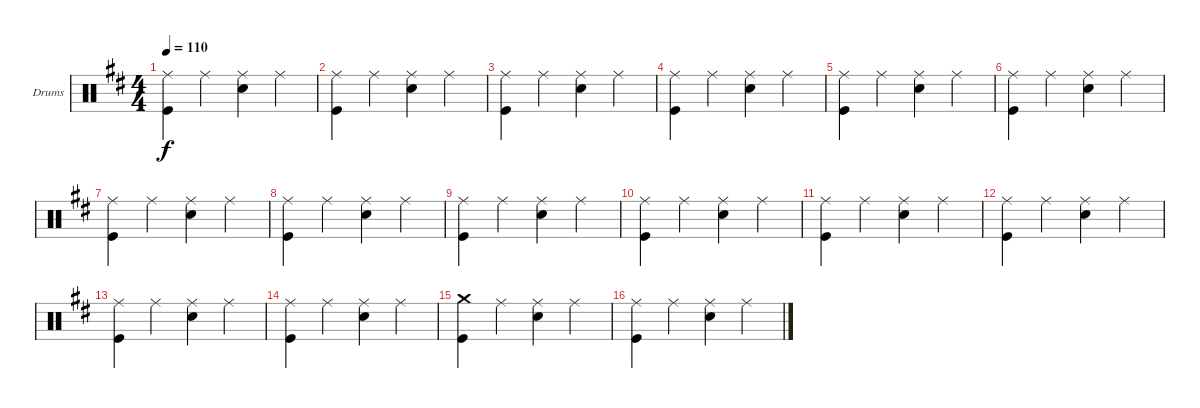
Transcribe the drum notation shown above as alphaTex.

\bracketExtendMode groupsimilarinstruments
\firstSystemTrackNameOrientation horizontal
\otherSystemsTrackNameOrientation horizontal
\track ("Drums" "Drums") {instrument percussion}
\staff {score}
\articulation defaults
\ts (4 4)
\scale
0.426768
\tempo 110
\accidentals auto
\clef neutral
\ottava regular
\simile none
\scale
0.317073
\ks d
("Ride (middle)" "Kick (hit)").4{dy f} "Ride (middle)".4 ("Ride (middle)" "Snare (hit) 2").4 "Ride (middle)".4 |
\scale
0.34596
\scale
0.292683 ("Ride (middle)" "Kick (hit)").4 "Ride (middle)".4 ("Ride (middle)" "Snare (hit) 2").4 "Ride (middle)".4 |
\scale
0.219136
\scale
0.252101 ("Ride (middle)" "Kick (hit)").4 "Ride (middle)".4 ("Ride (middle)" "Snare (hit) 2").4 "Ride (middle)".4 |
\scale
0.212963
\scale
0.273109 ("Ride (middle)" "Kick (hit)").4 "Ride (middle)".4 ("Ride (middle)" "Snare (hit) 2").4 "Ride (middle)".4 |
\scale
0.567901
\scale
0.47479 ("Ride (middle)" "Kick (hit)").4 "Ride (middle)".4 ("Ride (middle)" "Snare (hit) 2").4 "Ride (middle)".4 |
\scale
0.433657
\scale
0.351351 ("Ride (middle)" "Kick (hit)").4 "Ride (middle)".4 ("Ride (middle)" "Snare (hit) 2").4 "Ride (middle)".4 |
\scale
0.33657
\scale
0.324324 ("Ride (middle)" "Kick (hit)").4 "Ride (middle)".4 ("Ride (middle)" "Snare (hit) 2").4 "Ride (middle)".4 |
\scale
0.229773
\scale
0.324324 ("Ride (middle)" "Kick (hit)").4 "Ride (middle)".4 ("Ride (middle)" "Snare (hit) 2").4 "Ride (middle)".4 |
\scale
0.180157
\scale
0.26749 ("Ride (middle)" "Kick (hit)").4 "Ride (middle)".4 ("Ride (middle)" "Snare (hit) 2").4 "Ride (middle)".4 |
\scale
0.469974
\scale
0.465021 ("Ride (middle)" "Kick (hit)").4 "Ride (middle)".4 ("Ride (middle)" "Snare (hit) 2").4 "Ride (middle)".4 |
\scale
0.349869
\scale
0.26749 ("Ride (middle)" "Kick (hit)").4 "Ride (middle)".4 ("Ride (middle)" "Snare (hit) 2").4 "Ride (middle)".4 |
\scale
0.170673
\scale
0.324324 ("Ride (middle)" "Kick (hit)").4 "Ride (middle)".4 ("Ride (middle)" "Snare (hit) 2").4 "Ride (middle)".4 |
\scale
0.170673
\scale
0.324324 ("Ride (middle)" "Kick (hit)").4 "Ride (middle)".4 ("Ride (middle)" "Snare (hit) 2").4 "Ride (middle)".4 |
\scale
0.658654
\scale
0.351351 ("Ride (middle)" "Kick (hit)").4 "Ride (middle)".4 ("Ride (middle)" "Snare (hit) 2").4 "Ride (middle)".4 |
\scale
0.420245
\scale
0.47479 ("Kick (hit)" "Crash medium (hit)").4 "Ride (middle)".4 ("Ride (middle)" "Snare (hit) 2").4 "Ride (middle)".4 |
\scale
0.159509
\scale
0.273109 ("Ride (middle)" "Kick (hit)").4 "Ride (middle)".4 ("Ride (middle)" "Snare (hit) 2").4 "Ride (middle)".4
